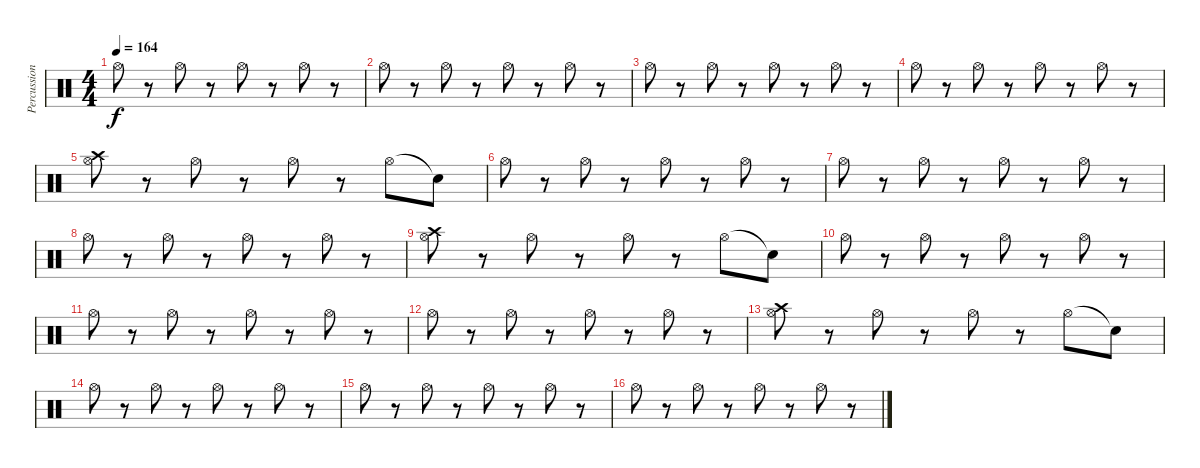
\track ("Percussion" "Percussion") {instrument percussion}
\staff {score}
\articulation defaults
\ts (4 4)
\tempo 164
\clef neutral
\ks c "Hi-Hat (open)".8{dy f}
r.8 "Hi-Hat (open)".8 r.8 "Hi-Hat (open)".8 r.8 "Hi-Hat (open)".8 r.8 |
"Hi-Hat (open)".8 r.8 "Hi-Hat (open)".8 r.8 "Hi-Hat (open)".8 r.8 "Hi-Hat (open)".8 r.8 |
"Hi-Hat (open)".8 r.8 "Hi-Hat (open)".8 r.8 "Hi-Hat (open)".8 r.8 "Hi-Hat (open)".8 r.8 |
"Hi-Hat (open)".8 r.8 "Hi-Hat (open)".8 r.8 "Hi-Hat (open)".8 r.8 "Hi-Hat (open)".8 r.8 |
("Hi-Hat (open)" "Crash high (hit)").8 r.8 "Hi-Hat (open)".8 r.8 "Hi-Hat (open)".8 r.8 "Hi-Hat (open)".8 "Snare (hit)"{t}.8 |
"Hi-Hat (open)".8 r.8 "Hi-Hat (open)".8 r.8 "Hi-Hat (open)".8 r.8 "Hi-Hat (open)".8 r.8 |
"Hi-Hat (open)".8 r.8 "Hi-Hat (open)".8 r.8 "Hi-Hat (open)".8 r.8 "Hi-Hat (open)".8 r.8 |
"Hi-Hat (open)".8 r.8 "Hi-Hat (open)".8 r.8 "Hi-Hat (open)".8 r.8 "Hi-Hat (open)".8 r.8 |
("Hi-Hat (open)" "Crash high (hit)").8 r.8 "Hi-Hat (open)".8 r.8 "Hi-Hat (open)".8 r.8 "Hi-Hat (open)".8 "Snare (hit)"{t}.8 |
"Hi-Hat (open)".8 r.8 "Hi-Hat (open)".8 r.8 "Hi-Hat (open)".8 r.8 "Hi-Hat (open)".8 r.8 |
"Hi-Hat (open)".8 r.8 "Hi-Hat (open)".8 r.8 "Hi-Hat (open)".8 r.8 "Hi-Hat (open)".8 r.8 |
"Hi-Hat (open)".8 r.8 "Hi-Hat (open)".8 r.8 "Hi-Hat (open)".8 r.8 "Hi-Hat (open)".8 r.8 |
("Hi-Hat (open)" "Crash high (hit)").8 r.8 "Hi-Hat (open)".8 r.8 "Hi-Hat (open)".8 r.8 "Hi-Hat (open)".8 "Snare (hit)"{t}.8 |
"Hi-Hat (open)".8 r.8 "Hi-Hat (open)".8 r.8 "Hi-Hat (open)".8 r.8 "Hi-Hat (open)".8 r.8 |
"Hi-Hat (open)".8 r.8 "Hi-Hat (open)".8 r.8 "Hi-Hat (open)".8 r.8 "Hi-Hat (open)".8 r.8 |
"Hi-Hat (open)".8 r.8 "Hi-Hat (open)".8 r.8 "Hi-Hat (open)".8 r.8 "Hi-Hat (open)".8 r.8
